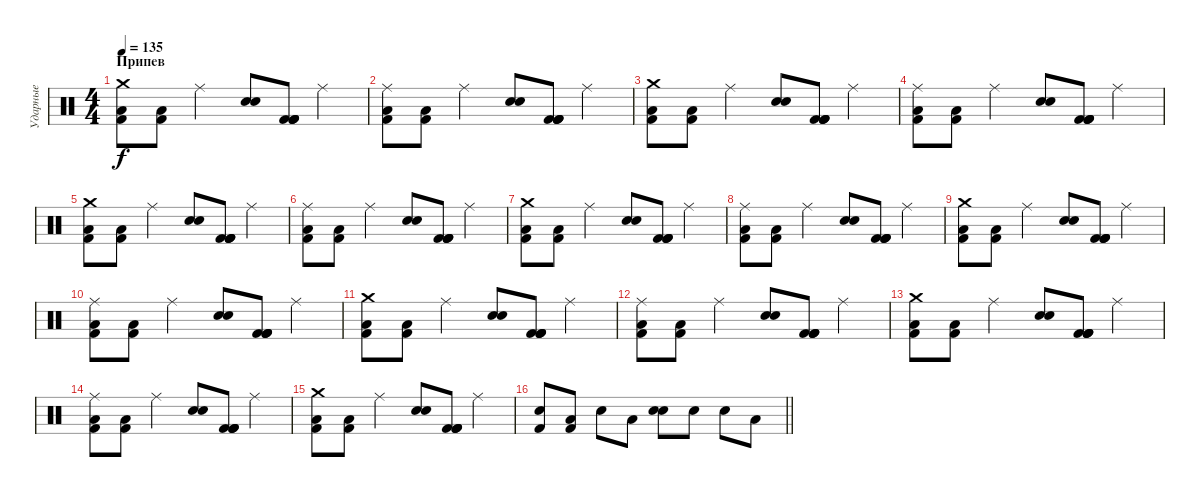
\track ("Ударные" "Ударные") {instrument percussion}
\staff {score}
\articulation defaults
\ts (4 4)
\section ("" "Припев")
\tempo 135
\clef neutral
\ks c
("Kick (hit) 2" "Low Floor Tom (hit)" "Crash medium (hit)").8{dy f} ("Kick (hit) 2" "Low Floor Tom (hit)").8 "Ride (middle)".4 ("Electric Snare (hit)" "Snare (hit) 2").8 ("Kick (hit) 2" "Kick (hit) 2" "Kick (hit) 2" "Kick (hit) 2").8 "Ride (middle)".4 |
("Kick (hit) 2" "Low Floor Tom (hit)" "Ride (middle)").8 ("Kick (hit) 2" "Low Floor Tom (hit)").8 "Ride (middle)".4 ("Electric Snare (hit)" "Snare (hit) 2").8 ("Kick (hit) 2" "Kick (hit) 2" "Kick (hit) 2" "Kick (hit) 2").8 "Ride (middle)".4 |
("Kick (hit) 2" "Low Floor Tom (hit)" "Crash medium (hit)").8 ("Kick (hit) 2" "Low Floor Tom (hit)").8 "Ride (middle)".4 ("Electric Snare (hit)" "Snare (hit) 2").8 ("Kick (hit) 2" "Kick (hit) 2" "Kick (hit) 2" "Kick (hit) 2").8 "Ride (middle)".4 |
("Kick (hit) 2" "Low Floor Tom (hit)" "Ride (middle)").8 ("Kick (hit) 2" "Low Floor Tom (hit)").8 "Ride (middle)".4 ("Electric Snare (hit)" "Snare (hit) 2").8 ("Kick (hit) 2" "Kick (hit) 2" "Kick (hit) 2" "Kick (hit) 2").8 "Ride (middle)".4 |
("Kick (hit) 2" "Low Floor Tom (hit)" "Crash medium (hit)").8 ("Kick (hit) 2" "Low Floor Tom (hit)").8 "Ride (middle)".4 ("Electric Snare (hit)" "Snare (hit) 2").8 ("Kick (hit) 2" "Kick (hit) 2" "Kick (hit) 2" "Kick (hit) 2").8 "Ride (middle)".4 |
("Kick (hit) 2" "Low Floor Tom (hit)" "Ride (middle)").8 ("Kick (hit) 2" "Low Floor Tom (hit)").8 "Ride (middle)".4 ("Electric Snare (hit)" "Snare (hit) 2").8 ("Kick (hit) 2" "Kick (hit) 2" "Kick (hit) 2" "Kick (hit) 2").8 "Ride (middle)".4 |
("Kick (hit) 2" "Low Floor Tom (hit)" "Crash medium (hit)").8 ("Kick (hit) 2" "Low Floor Tom (hit)").8 "Ride (middle)".4 ("Electric Snare (hit)" "Snare (hit) 2").8 ("Kick (hit) 2" "Kick (hit) 2" "Kick (hit) 2" "Kick (hit) 2").8 "Ride (middle)".4 |
("Kick (hit) 2" "Low Floor Tom (hit)" "Ride (middle)").8 ("Kick (hit) 2" "Low Floor Tom (hit)").8 "Ride (middle)".4 ("Electric Snare (hit)" "Snare (hit) 2").8 ("Kick (hit) 2" "Kick (hit) 2" "Kick (hit) 2" "Kick (hit) 2").8 "Ride (middle)".4 |
("Kick (hit) 2" "Low Floor Tom (hit)" "Crash medium (hit)").8 ("Kick (hit) 2" "Low Floor Tom (hit)").8 "Ride (middle)".4 ("Electric Snare (hit)" "Snare (hit) 2").8 ("Kick (hit) 2" "Kick (hit) 2" "Kick (hit) 2" "Kick (hit) 2").8 "Ride (middle)".4 |
("Kick (hit) 2" "Low Floor Tom (hit)" "Ride (middle)").8 ("Kick (hit) 2" "Low Floor Tom (hit)").8 "Ride (middle)".4 ("Electric Snare (hit)" "Snare (hit) 2").8 ("Kick (hit) 2" "Kick (hit) 2" "Kick (hit) 2" "Kick (hit) 2").8 "Ride (middle)".4 |
("Kick (hit) 2" "Low Floor Tom (hit)" "Crash medium (hit)").8 ("Kick (hit) 2" "Low Floor Tom (hit)").8 "Ride (middle)".4 ("Electric Snare (hit)" "Snare (hit) 2").8 ("Kick (hit) 2" "Kick (hit) 2" "Kick (hit) 2" "Kick (hit) 2").8 "Ride (middle)".4 |
("Kick (hit) 2" "Low Floor Tom (hit)" "Ride (middle)").8 ("Kick (hit) 2" "Low Floor Tom (hit)").8 "Ride (middle)".4 ("Electric Snare (hit)" "Snare (hit) 2").8 ("Kick (hit) 2" "Kick (hit) 2" "Kick (hit) 2" "Kick (hit) 2").8 "Ride (middle)".4 |
("Kick (hit) 2" "Low Floor Tom (hit)" "Crash medium (hit)").8 ("Kick (hit) 2" "Low Floor Tom (hit)").8 "Ride (middle)".4 ("Electric Snare (hit)" "Snare (hit) 2").8 ("Kick (hit) 2" "Kick (hit) 2" "Kick (hit) 2" "Kick (hit) 2").8 "Ride (middle)".4 |
("Kick (hit) 2" "Low Floor Tom (hit)" "Ride (middle)").8 ("Kick (hit) 2" "Low Floor Tom (hit)").8 "Ride (middle)".4 ("Electric Snare (hit)" "Snare (hit) 2").8 ("Kick (hit) 2" "Kick (hit) 2" "Kick (hit) 2" "Kick (hit) 2").8 "Ride (middle)".4 |
("Kick (hit) 2" "Low Floor Tom (hit)" "Crash medium (hit)").8 ("Kick (hit) 2" "Low Floor Tom (hit)").8 "Ride (middle)".4 ("Electric Snare (hit)" "Snare (hit) 2").8 ("Kick (hit) 2" "Kick (hit) 2" "Kick (hit) 2" "Kick (hit) 2").8 "Ride (middle)".4 |
\barLineRight lightlight
("Kick (hit) 2" "Electric Snare (hit)").8 ("Kick (hit) 2" "Low Floor Tom (hit)").8 "Electric Snare (hit)".8 "Low Floor Tom (hit)".8 ("Snare (hit) 2" "Electric Snare (hit)").8 "Electric Snare (hit)".8 "Electric Snare (hit)".8 "Low Floor Tom (hit)".8
